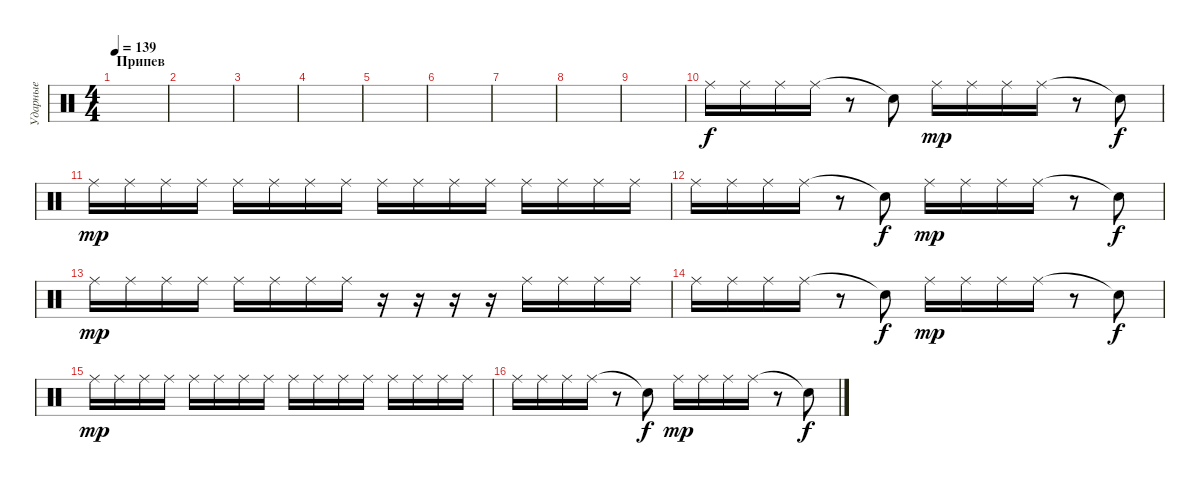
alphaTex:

\track ("Ударные" "Ударные") {instrument percussion}
\staff {score}
\articulation defaults
\ts (4 4)
\section ("" "Припев")
\tempo 139
\clef neutral
\ks c
|
|
|
|
|
|
|
|
|
"Ride (middle)".16 "Ride (middle)".16 "Ride (middle)".16 "Ride (middle)".16 r.8 "Snare (hit)"{t}.8{dy f} "Ride (middle)".16{dy mp} "Ride (middle)".16 "Ride (middle)".16 "Ride (middle)".16 r.8 "Snare (hit)"{t}.8{dy f} |
"Ride (middle)".16{dy mp} "Ride (middle)".16 "Ride (middle)".16 "Ride (middle)".16 "Ride (middle)".16 "Ride (middle)".16 "Ride (middle)".16 "Ride (middle)".16 "Ride (middle)".16 "Ride (middle)".16 "Ride (middle)".16 "Ride (middle)".16 "Ride (middle)".16 "Ride (middle)".16 "Ride (middle)".16 "Ride (middle)".16 |
"Ride (middle)".16 "Ride (middle)".16 "Ride (middle)".16 "Ride (middle)".16 r.8 "Snare (hit)"{t}.8{dy f} "Ride (middle)".16{dy mp} "Ride (middle)".16 "Ride (middle)".16 "Ride (middle)".16 r.8 "Snare (hit)"{t}.8{dy f} |
"Ride (middle)".16{dy mp} "Ride (middle)".16 "Ride (middle)".16 "Ride (middle)".16 "Ride (middle)".16 "Ride (middle)".16 "Ride (middle)".16 "Ride (middle)".16 r.16 r.16 r.16 r.16 "Ride (middle)".16 "Ride (middle)".16 "Ride (middle)".16 "Ride (middle)".16 |
"Ride (middle)".16 "Ride (middle)".16 "Ride (middle)".16 "Ride (middle)".16 r.8 "Snare (hit)"{t}.8{dy f} "Ride (middle)".16{dy mp} "Ride (middle)".16 "Ride (middle)".16 "Ride (middle)".16 r.8 "Snare (hit)"{t}.8{dy f} |
"Ride (middle)".16{dy mp} "Ride (middle)".16 "Ride (middle)".16 "Ride (middle)".16 "Ride (middle)".16 "Ride (middle)".16 "Ride (middle)".16 "Ride (middle)".16 "Ride (middle)".16 "Ride (middle)".16 "Ride (middle)".16 "Ride (middle)".16 "Ride (middle)".16 "Ride (middle)".16 "Ride (middle)".16 "Ride (middle)".16 |
"Ride (middle)".16 "Ride (middle)".16 "Ride (middle)".16 "Ride (middle)".16 r.8 "Snare (hit)"{t}.8{dy f} "Ride (middle)".16{dy mp} "Ride (middle)".16 "Ride (middle)".16 "Ride (middle)".16 r.8 "Snare (hit)"{t}.8{dy f}
